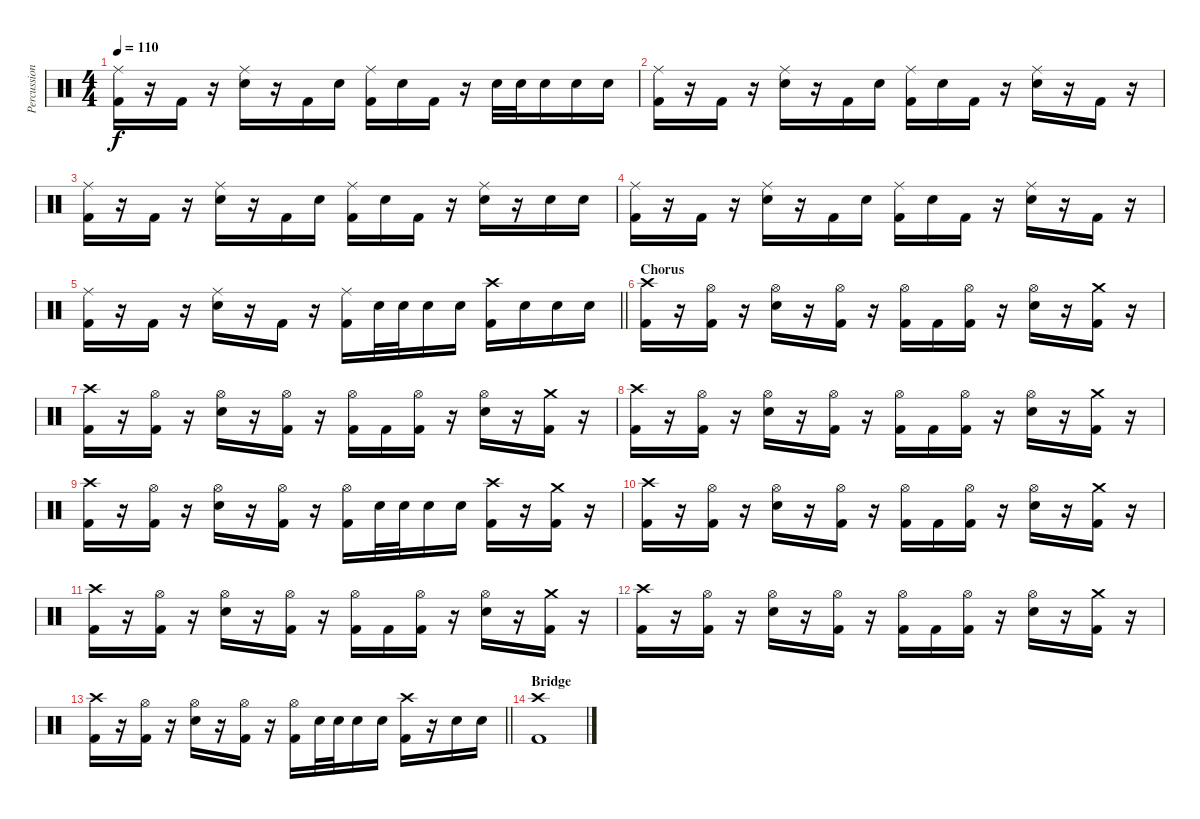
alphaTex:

\track ("Percussion" "Percussion") {instrument percussion}
\staff {score}
\articulation defaults
\ts (4 4)
\tempo 110
\clef neutral
\ks c
("Ride (middle)" "Kick (hit) 2").16{dy f} r.16 "Kick (hit) 2".16 r.16 ("Ride (middle)" "Snare (hit) 2").16 r.16 "Kick (hit) 2".16 "Snare (hit) 2".16 ("Ride (middle)" "Kick (hit) 2").16 "Snare (hit) 2".16 "Kick (hit) 2".16 r.16 "Snare (hit) 2".32 "Snare (hit) 2".32 "Snare (hit) 2".16 "Snare (hit) 2".16 "Snare (hit) 2".16 |
("Ride (middle)" "Kick (hit) 2").16 r.16 "Kick (hit) 2".16 r.16 ("Ride (middle)" "Snare (hit) 2").16 r.16 "Kick (hit) 2".16 "Snare (hit) 2".16 ("Ride (middle)" "Kick (hit) 2").16 "Snare (hit) 2".16 "Kick (hit) 2".16 r.16 ("Ride (middle)" "Snare (hit) 2").16 r.16 "Kick (hit) 2".16 r.16 |
("Ride (middle)" "Kick (hit) 2").16 r.16 "Kick (hit) 2".16 r.16 ("Ride (middle)" "Snare (hit) 2").16 r.16 "Kick (hit) 2".16 "Snare (hit) 2".16 ("Ride (middle)" "Kick (hit) 2").16 "Snare (hit) 2".16 "Kick (hit) 2".16 r.16 ("Ride (middle)" "Snare (hit) 2").16 r.16 "Snare (hit) 2".16 "Snare (hit) 2".16 |
("Ride (middle)" "Kick (hit) 2").16 r.16 "Kick (hit) 2".16 r.16 ("Ride (middle)" "Snare (hit) 2").16 r.16 "Kick (hit) 2".16 "Snare (hit) 2".16 ("Ride (middle)" "Kick (hit) 2").16 "Snare (hit) 2".16 "Kick (hit) 2".16 r.16 ("Ride (middle)" "Snare (hit) 2").16 r.16 "Kick (hit) 2".16 r.16 |
\barLineRight lightlight
("Ride (middle)" "Kick (hit) 2").16 r.16 "Kick (hit) 2".16 r.16 ("Ride (middle)" "Snare (hit) 2").16 r.16 "Kick (hit) 2".16 r.16 ("Ride (middle)" "Kick (hit) 2").16 "Snare (hit) 2".32 "Snare (hit) 2".32 "Snare (hit) 2".16 "Snare (hit) 2".16 ("Kick (hit) 2" "Crash high (hit)").16 "Snare (hit) 2".16 "Snare (hit) 2".16 "Snare (hit) 2".16 |
\section ("" "Chorus")
("Crash high (hit)" "Kick (hit) 2").16 r.16 ("Hi-Hat (open)" "Kick (hit) 2").16 r.16 ("Hi-Hat (open)" "Snare (hit) 2").16 r.16 ("Hi-Hat (open)" "Kick (hit) 2").16 r.16 ("Hi-Hat (open)" "Kick (hit) 2").16 "Kick (hit) 2".16 ("Hi-Hat (open)" "Kick (hit) 2").16 r.16 ("Hi-Hat (open)" "Snare (hit) 2").16 r.16 ("Crash medium (hit)" "Kick (hit) 2").16 r.16 |
("Crash high (hit)" "Kick (hit) 2").16 r.16 ("Hi-Hat (open)" "Kick (hit) 2").16 r.16 ("Hi-Hat (open)" "Snare (hit) 2").16 r.16 ("Hi-Hat (open)" "Kick (hit) 2").16 r.16 ("Hi-Hat (open)" "Kick (hit) 2").16 "Kick (hit) 2".16 ("Hi-Hat (open)" "Kick (hit) 2").16 r.16 ("Hi-Hat (open)" "Snare (hit) 2").16 r.16 ("Crash medium (hit)" "Kick (hit) 2").16 r.16 |
("Crash high (hit)" "Kick (hit) 2").16 r.16 ("Hi-Hat (open)" "Kick (hit) 2").16 r.16 ("Hi-Hat (open)" "Snare (hit) 2").16 r.16 ("Hi-Hat (open)" "Kick (hit) 2").16 r.16 ("Hi-Hat (open)" "Kick (hit) 2").16 "Kick (hit) 2".16 ("Hi-Hat (open)" "Kick (hit) 2").16 r.16 ("Hi-Hat (open)" "Snare (hit) 2").16 r.16 ("Crash medium (hit)" "Kick (hit) 2").16 r.16 |
("Crash high (hit)" "Kick (hit) 2").16 r.16 ("Hi-Hat (open)" "Kick (hit) 2").16 r.16 ("Hi-Hat (open)" "Snare (hit) 2").16 r.16 ("Hi-Hat (open)" "Kick (hit) 2").16 r.16 ("Hi-Hat (open)" "Kick (hit) 2").16 "Snare (hit) 2".32 "Snare (hit) 2".32 "Snare (hit) 2".16 "Snare (hit) 2".16 ("Kick (hit) 2" "Crash high (hit)").16 r.16 ("Kick (hit) 2" "Crash medium (hit)").16 r.16 |
("Crash high (hit)" "Kick (hit) 2").16 r.16 ("Hi-Hat (open)" "Kick (hit) 2").16 r.16 ("Hi-Hat (open)" "Snare (hit) 2").16 r.16 ("Hi-Hat (open)" "Kick (hit) 2").16 r.16 ("Hi-Hat (open)" "Kick (hit) 2").16 "Kick (hit) 2".16 ("Hi-Hat (open)" "Kick (hit) 2").16 r.16 ("Hi-Hat (open)" "Snare (hit) 2").16 r.16 ("Crash medium (hit)" "Kick (hit) 2").16 r.16 |
("Crash high (hit)" "Kick (hit) 2").16 r.16 ("Hi-Hat (open)" "Kick (hit) 2").16 r.16 ("Hi-Hat (open)" "Snare (hit) 2").16 r.16 ("Hi-Hat (open)" "Kick (hit) 2").16 r.16 ("Hi-Hat (open)" "Kick (hit) 2").16 "Kick (hit) 2".16 ("Hi-Hat (open)" "Kick (hit) 2").16 r.16 ("Hi-Hat (open)" "Snare (hit) 2").16 r.16 ("Crash medium (hit)" "Kick (hit) 2").16 r.16 |
("Crash high (hit)" "Kick (hit) 2").16 r.16 ("Hi-Hat (open)" "Kick (hit) 2").16 r.16 ("Hi-Hat (open)" "Snare (hit) 2").16 r.16 ("Hi-Hat (open)" "Kick (hit) 2").16 r.16 ("Hi-Hat (open)" "Kick (hit) 2").16 "Kick (hit) 2".16 ("Hi-Hat (open)" "Kick (hit) 2").16 r.16 ("Hi-Hat (open)" "Snare (hit) 2").16 r.16 ("Crash medium (hit)" "Kick (hit) 2").16 r.16 |
\barLineRight lightlight
("Crash high (hit)" "Kick (hit) 2").16 r.16 ("Hi-Hat (open)" "Kick (hit) 2").16 r.16 ("Hi-Hat (open)" "Snare (hit) 2").16 r.16 ("Hi-Hat (open)" "Kick (hit) 2").16 r.16 ("Hi-Hat (open)" "Kick (hit) 2").16 "Snare (hit) 2".32 "Snare (hit) 2".32 "Snare (hit) 2".16 "Snare (hit) 2".16 ("Kick (hit) 2" "Crash high (hit)").16 r.16 "Snare (hit) 2".16 "Snare (hit) 2".16 |
\section ("" "Bridge")
("Crash high (hit)" "Kick (hit) 2").1
